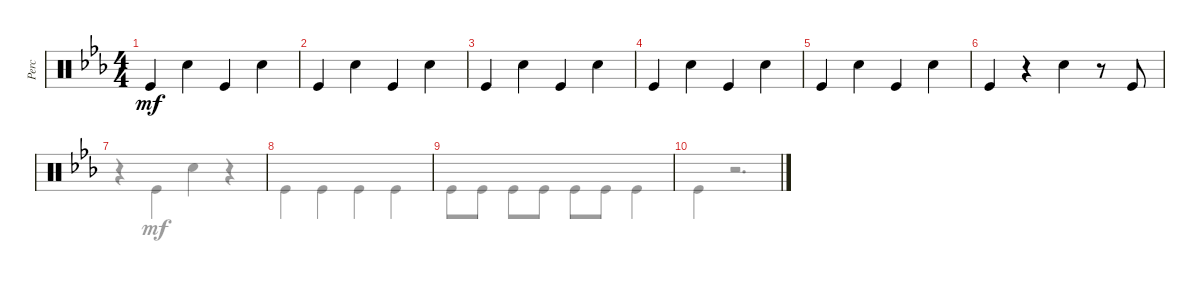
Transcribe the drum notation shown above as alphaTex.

\defaultSystemsLayout 4
\bracketExtendMode groupsimilarinstruments
\otherSystemsTrackNameOrientation horizontal
\track ("Percussions" "Perc") {instrument percussion}
\staff {score}
\articulation defaults
\voice
\ts (4 4)
\tempo (140 hide)
\clef neutral
\ks cminor "Kick (hit)".4{dy mf} "Snare (hit) 2".4 "Kick (hit)".4 "Snare (hit) 2".4
|
"Kick (hit)".4 "Snare (hit) 2".4 "Kick (hit)".4 "Snare (hit) 2".4 |
"Kick (hit)".4 "Snare (hit) 2".4 "Kick (hit)".4 "Snare (hit) 2".4 |
"Kick (hit)".4 "Snare (hit) 2".4 "Kick (hit)".4 "Snare (hit) 2".4 |
"Kick (hit)".4 "Snare (hit) 2".4 "Kick (hit)".4 "Snare (hit) 2".4 |
"Kick (hit)".4 r.4 "Snare (hit) 2".4 r.8 "Kick (hit)".8 |
|
|
|
\voice
\clef neutral
\ottava regular
\simile none
\ks cminor
|
|
|
|
|
|
r.4 "Kick (hit)".4 "Snare (hit) 2".4 r.4 |
"Kick (hit)".4 "Kick (hit)".4 "Kick (hit)".4 "Kick (hit)".4 |
"Kick (hit)".8 "Kick (hit)".8 "Kick (hit)".8 "Kick (hit)".8 "Kick (hit)".8 "Kick (hit)".8 "Kick (hit)".4 |
"Kick (hit)".4 r.2{d}
